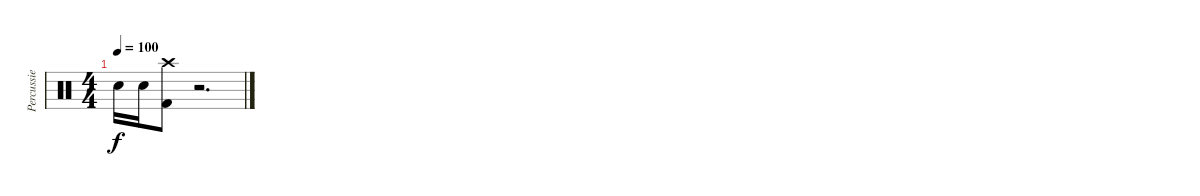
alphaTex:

\track ("Percussie" "Percussie") {instrument percussion}
\staff {score}
\articulation defaults
\ts (4 4)
\tempo 100
\clef neutral
\ks c "Electric Snare (hit)".16{dy f} "Electric Snare (hit)".16
("Crash high (hit)" "Kick (hit) 2").8 r.2{d}
